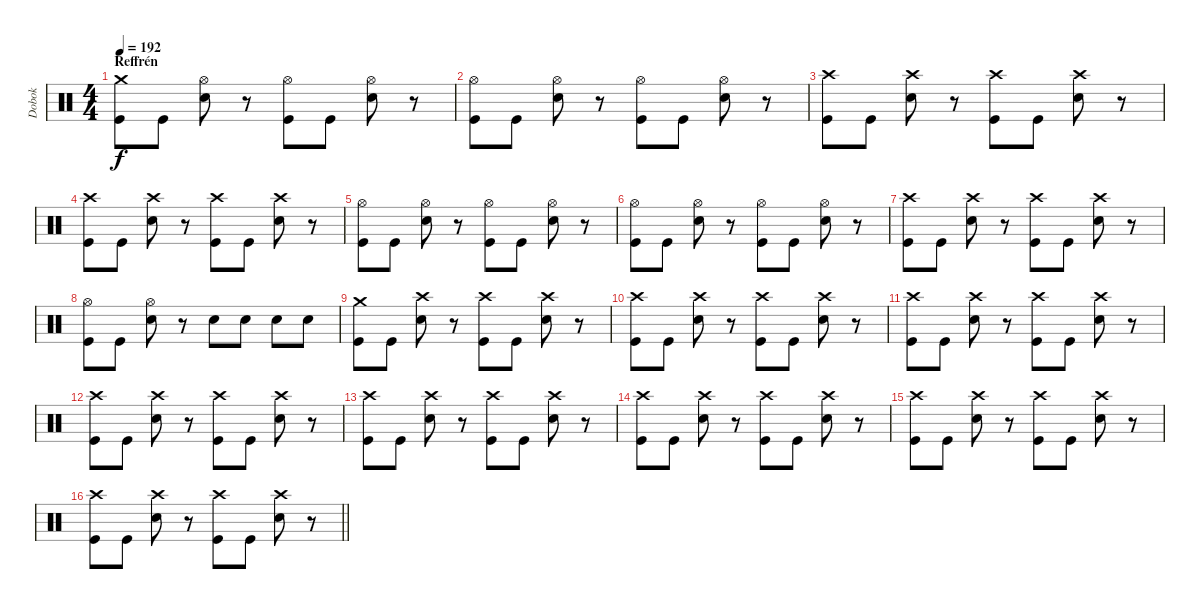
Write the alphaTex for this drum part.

\track ("Dobok" "Dobok") {instrument percussion}
\staff {score}
\articulation defaults
\ts (4 4)
\section ("" "Reffrén")
\tempo 192
\clef neutral
\ks c
("Crash medium (hit)" "Kick (hit)").8{dy f} "Kick (hit)".8 ("Hi-Hat (open)" "Electric Snare (hit)").8 r.8 ("Hi-Hat (open)" "Kick (hit)").8 "Kick (hit)".8 ("Hi-Hat (open)" "Electric Snare (hit)").8 r.8 |
("Hi-Hat (open)" "Kick (hit)").8 "Kick (hit)".8 ("Hi-Hat (open)" "Electric Snare (hit)").8 r.8 ("Hi-Hat (open)" "Kick (hit)").8 "Kick (hit)".8 ("Hi-Hat (open)" "Electric Snare (hit)").8 r.8 |
("Crash high (hit)" "Kick (hit)").8 "Kick (hit)".8 ("Crash high (hit)" "Electric Snare (hit)").8 r.8 ("Crash high (hit)" "Kick (hit)").8 "Kick (hit)".8 ("Crash high (hit)" "Electric Snare (hit)").8 r.8 |
("Crash high (hit)" "Kick (hit)").8 "Kick (hit)".8 ("Crash high (hit)" "Electric Snare (hit)").8 r.8 ("Crash high (hit)" "Kick (hit)").8 "Kick (hit)".8 ("Crash high (hit)" "Electric Snare (hit)").8 r.8 |
("Hi-Hat (open)" "Kick (hit)").8 "Kick (hit)".8 ("Hi-Hat (open)" "Electric Snare (hit)").8 r.8 ("Hi-Hat (open)" "Kick (hit)").8 "Kick (hit)".8 ("Hi-Hat (open)" "Electric Snare (hit)").8 r.8 |
("Hi-Hat (open)" "Kick (hit)").8 "Kick (hit)".8 ("Hi-Hat (open)" "Electric Snare (hit)").8 r.8 ("Hi-Hat (open)" "Kick (hit)").8 "Kick (hit)".8 ("Hi-Hat (open)" "Electric Snare (hit)").8 r.8 |
("Crash high (hit)" "Kick (hit)").8 "Kick (hit)".8 ("Crash high (hit)" "Electric Snare (hit)").8 r.8 ("Crash high (hit)" "Kick (hit)").8 "Kick (hit)".8 ("Crash high (hit)" "Electric Snare (hit)").8 r.8 |
("Hi-Hat (open)" "Kick (hit)").8 "Kick (hit)".8 ("Hi-Hat (open)" "Electric Snare (hit)").8 r.8 "Electric Snare (hit)".8 "Electric Snare (hit)".8 "Electric Snare (hit)".8 "Electric Snare (hit)".8 |
("Crash medium (hit)" "Kick (hit)").8 "Kick (hit)".8 ("Crash high (hit)" "Electric Snare (hit)").8 r.8 ("Crash high (hit)" "Kick (hit)").8 "Kick (hit)".8 ("Crash high (hit)" "Electric Snare (hit)").8 r.8 |
("Crash high (hit)" "Kick (hit)").8 "Kick (hit)".8 ("Crash high (hit)" "Electric Snare (hit)").8 r.8 ("Crash high (hit)" "Kick (hit)").8 "Kick (hit)".8 ("Crash high (hit)" "Electric Snare (hit)").8 r.8 |
("Crash high (hit)" "Kick (hit)").8 "Kick (hit)".8 ("Crash high (hit)" "Electric Snare (hit)").8 r.8 ("Crash high (hit)" "Kick (hit)").8 "Kick (hit)".8 ("Crash high (hit)" "Electric Snare (hit)").8 r.8 |
("Crash high (hit)" "Kick (hit)").8 "Kick (hit)".8 ("Crash high (hit)" "Electric Snare (hit)").8 r.8 ("Crash high (hit)" "Kick (hit)").8 "Kick (hit)".8 ("Crash high (hit)" "Electric Snare (hit)").8 r.8 |
("Crash high (hit)" "Kick (hit)").8 "Kick (hit)".8 ("Crash high (hit)" "Electric Snare (hit)").8 r.8 ("Crash high (hit)" "Kick (hit)").8 "Kick (hit)".8 ("Crash high (hit)" "Electric Snare (hit)").8 r.8 |
("Crash high (hit)" "Kick (hit)").8 "Kick (hit)".8 ("Crash high (hit)" "Electric Snare (hit)").8 r.8 ("Crash high (hit)" "Kick (hit)").8 "Kick (hit)".8 ("Crash high (hit)" "Electric Snare (hit)").8 r.8 |
("Crash high (hit)" "Kick (hit)").8 "Kick (hit)".8 ("Crash high (hit)" "Electric Snare (hit)").8 r.8 ("Crash high (hit)" "Kick (hit)").8 "Kick (hit)".8 ("Crash high (hit)" "Electric Snare (hit)").8 r.8 |
\barLineRight lightlight
("Crash high (hit)" "Kick (hit)").8 "Kick (hit)".8 ("Crash high (hit)" "Electric Snare (hit)").8 r.8 ("Crash high (hit)" "Kick (hit)").8 "Kick (hit)".8 ("Crash high (hit)" "Electric Snare (hit)").8 r.8
